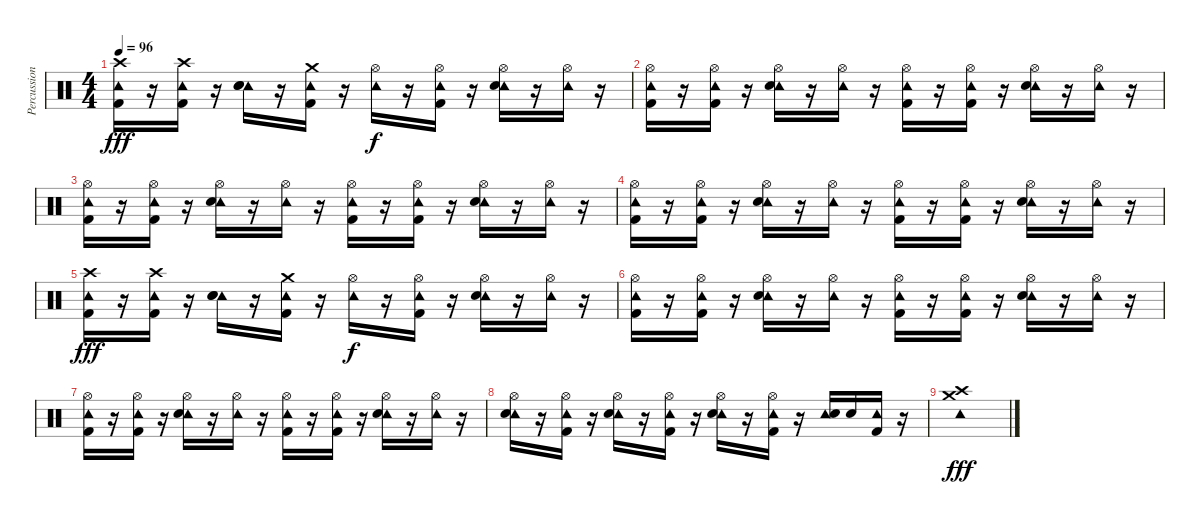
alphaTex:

\track ("Percussions" "Percussion") {instrument percussion}
\staff {score}
\articulation defaults
\ts (4 4)
\tempo 96
\clef neutral
\ks c
("Crash high (hit)" "Tambourine (hit)" "Kick (hit) 2").16{dy fff} r.16 ("Crash high (hit)" "Tambourine (hit)" "Kick (hit) 2").16 r.16 ("Tambourine (hit)" "Snare (hit) 2" "Electric Snare (hit)").16 r.16 ("Crash medium (hit)" "Tambourine (hit)" "Kick (hit) 2").16 r.16 ("Hi-Hat (open)" "Tambourine (hit)").16{dy f} r.16 ("Hi-Hat (open)" "Tambourine (hit)" "Kick (hit) 2").16 r.16 ("Hi-Hat (open)" "Tambourine (hit)" "Electric Snare (hit)").16 r.16 ("Hi-Hat (open)" "Tambourine (hit)").16 r.16 |
("Hi-Hat (open)" "Tambourine (hit)" "Kick (hit) 2").16 r.16 ("Hi-Hat (open)" "Tambourine (hit)" "Kick (hit) 2").16 r.16 ("Hi-Hat (open)" "Tambourine (hit)" "Electric Snare (hit)").16 r.16 ("Hi-Hat (open)" "Tambourine (hit)").16 r.16 ("Hi-Hat (open)" "Tambourine (hit)" "Kick (hit) 2").16 r.16 ("Hi-Hat (open)" "Tambourine (hit)" "Kick (hit) 2").16 r.16 ("Hi-Hat (open)" "Tambourine (hit)" "Electric Snare (hit)").16 r.16 ("Hi-Hat (open)" "Tambourine (hit)").16 r.16 |
("Hi-Hat (open)" "Tambourine (hit)" "Kick (hit) 2").16 r.16 ("Hi-Hat (open)" "Tambourine (hit)" "Kick (hit) 2").16 r.16 ("Hi-Hat (open)" "Tambourine (hit)" "Electric Snare (hit)").16 r.16 ("Hi-Hat (open)" "Tambourine (hit)").16 r.16 ("Hi-Hat (open)" "Tambourine (hit)" "Kick (hit) 2").16 r.16 ("Hi-Hat (open)" "Tambourine (hit)" "Kick (hit) 2").16 r.16 ("Hi-Hat (open)" "Tambourine (hit)" "Electric Snare (hit)").16 r.16 ("Hi-Hat (open)" "Tambourine (hit)").16 r.16 |
("Hi-Hat (open)" "Tambourine (hit)" "Kick (hit) 2").16 r.16 ("Hi-Hat (open)" "Tambourine (hit)" "Kick (hit) 2").16 r.16 ("Hi-Hat (open)" "Tambourine (hit)" "Electric Snare (hit)").16 r.16 ("Hi-Hat (open)" "Tambourine (hit)").16 r.16 ("Hi-Hat (open)" "Tambourine (hit)" "Kick (hit) 2").16 r.16 ("Hi-Hat (open)" "Tambourine (hit)" "Kick (hit) 2").16 r.16 ("Hi-Hat (open)" "Tambourine (hit)" "Electric Snare (hit)").16 r.16 ("Hi-Hat (open)" "Tambourine (hit)").16 r.16 |
("Crash high (hit)" "Tambourine (hit)" "Kick (hit) 2").16{dy fff} r.16 ("Crash high (hit)" "Tambourine (hit)" "Kick (hit) 2").16 r.16 ("Tambourine (hit)" "Snare (hit) 2" "Electric Snare (hit)").16 r.16 ("Crash medium (hit)" "Tambourine (hit)" "Kick (hit) 2").16 r.16 ("Hi-Hat (open)" "Tambourine (hit)").16{dy f} r.16 ("Hi-Hat (open)" "Tambourine (hit)" "Kick (hit) 2").16 r.16 ("Hi-Hat (open)" "Tambourine (hit)" "Electric Snare (hit)").16 r.16 ("Hi-Hat (open)" "Tambourine (hit)").16 r.16 |
("Hi-Hat (open)" "Tambourine (hit)" "Kick (hit) 2").16 r.16 ("Hi-Hat (open)" "Tambourine (hit)" "Kick (hit) 2").16 r.16 ("Hi-Hat (open)" "Tambourine (hit)" "Electric Snare (hit)").16 r.16 ("Hi-Hat (open)" "Tambourine (hit)").16 r.16 ("Hi-Hat (open)" "Tambourine (hit)" "Kick (hit) 2").16 r.16 ("Hi-Hat (open)" "Tambourine (hit)" "Kick (hit) 2").16 r.16 ("Hi-Hat (open)" "Tambourine (hit)" "Electric Snare (hit)").16 r.16 ("Hi-Hat (open)" "Tambourine (hit)").16 r.16 |
("Hi-Hat (open)" "Tambourine (hit)" "Kick (hit) 2").16 r.16 ("Hi-Hat (open)" "Tambourine (hit)" "Kick (hit) 2").16 r.16 ("Hi-Hat (open)" "Tambourine (hit)" "Electric Snare (hit)").16 r.16 ("Hi-Hat (open)" "Tambourine (hit)").16 r.16 ("Hi-Hat (open)" "Tambourine (hit)" "Kick (hit) 2").16 r.16 ("Hi-Hat (open)" "Tambourine (hit)" "Kick (hit) 2").16 r.16 ("Hi-Hat (open)" "Tambourine (hit)" "Electric Snare (hit)").16 r.16 ("Hi-Hat (open)" "Tambourine (hit)").16 r.16 |
("Hi-Hat (open)" "Tambourine (hit)" "Electric Snare (hit)").16 r.16 ("Hi-Hat (open)" "Tambourine (hit)" "Kick (hit) 2").16 r.16 ("Hi-Hat (open)" "Tambourine (hit)" "Electric Snare (hit)").16 r.16 ("Hi-Hat (open)" "Tambourine (hit)" "Kick (hit) 2").16 r.16 ("Hi-Hat (open)" "Tambourine (hit)" "Electric Snare (hit)").16 r.16 ("Hi-Hat (open)" "Tambourine (hit)" "Kick (hit) 2").16 r.16 ("Tambourine (hit)" "Electric Snare (hit)").16 "Electric Snare (hit)".16 ("Tambourine (hit)" "Kick (hit) 2").16 r.16 |
("Crash medium (hit)" "Crash high (hit)" "Tambourine (hit)").1{dy fff}
